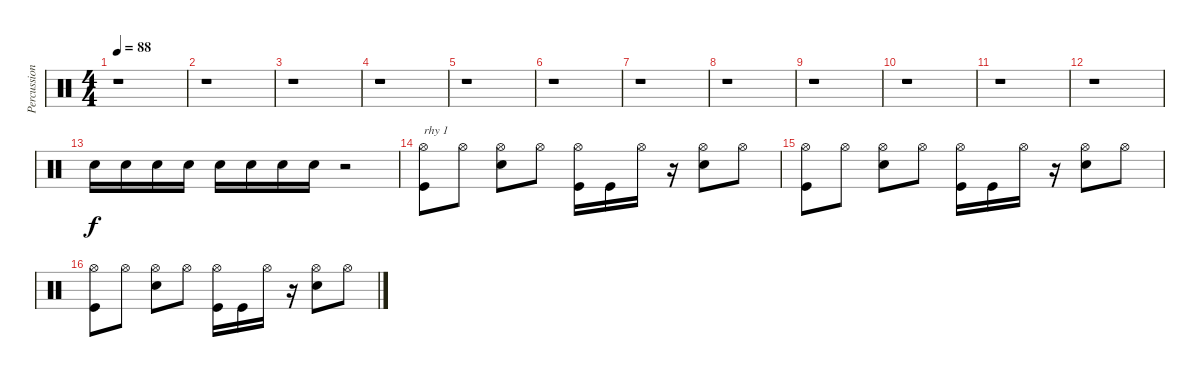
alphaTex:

\track ("Percussion" "Percussion") {instrument percussion}
\staff {score}
\articulation defaults
\ts (4 4)
\tempo 88
\clef neutral
\ks c
r.1{dy f} |
r.1 |
r.1 |
r.1 |
r.1 |
r.1 |
r.1 |
r.1 |
r.1 |
r.1 |
r.1 |
r.1 |
"Snare (hit) 2".16 "Snare (hit) 2".16 "Snare (hit) 2".16 "Snare (hit) 2".16 "Snare (hit) 2".16 "Snare (hit) 2".16 "Snare (hit) 2".16 "Snare (hit) 2".16 r.2 |
("Hi-Hat (open)" "Kick (hit)").8{txt "rhy 1"} "Hi-Hat (open)".8 ("Hi-Hat (open)" "Snare (hit) 2").8 "Hi-Hat (open)".8 ("Hi-Hat (open)" "Kick (hit)").16 "Kick (hit)".16 "Hi-Hat (open)".16 r.16 ("Hi-Hat (open)" "Snare (hit) 2").8 "Hi-Hat (open)".8 |
("Hi-Hat (open)" "Kick (hit)").8 "Hi-Hat (open)".8 ("Hi-Hat (open)" "Snare (hit) 2").8 "Hi-Hat (open)".8 ("Hi-Hat (open)" "Kick (hit)").16 "Kick (hit)".16 "Hi-Hat (open)".16 r.16 ("Hi-Hat (open)" "Snare (hit) 2").8 "Hi-Hat (open)".8 |
("Hi-Hat (open)" "Kick (hit)").8 "Hi-Hat (open)".8 ("Hi-Hat (open)" "Snare (hit) 2").8 "Hi-Hat (open)".8 ("Hi-Hat (open)" "Kick (hit)").16 "Kick (hit)".16 "Hi-Hat (open)".16 r.16 ("Hi-Hat (open)" "Snare (hit) 2").8 "Hi-Hat (open)".8
